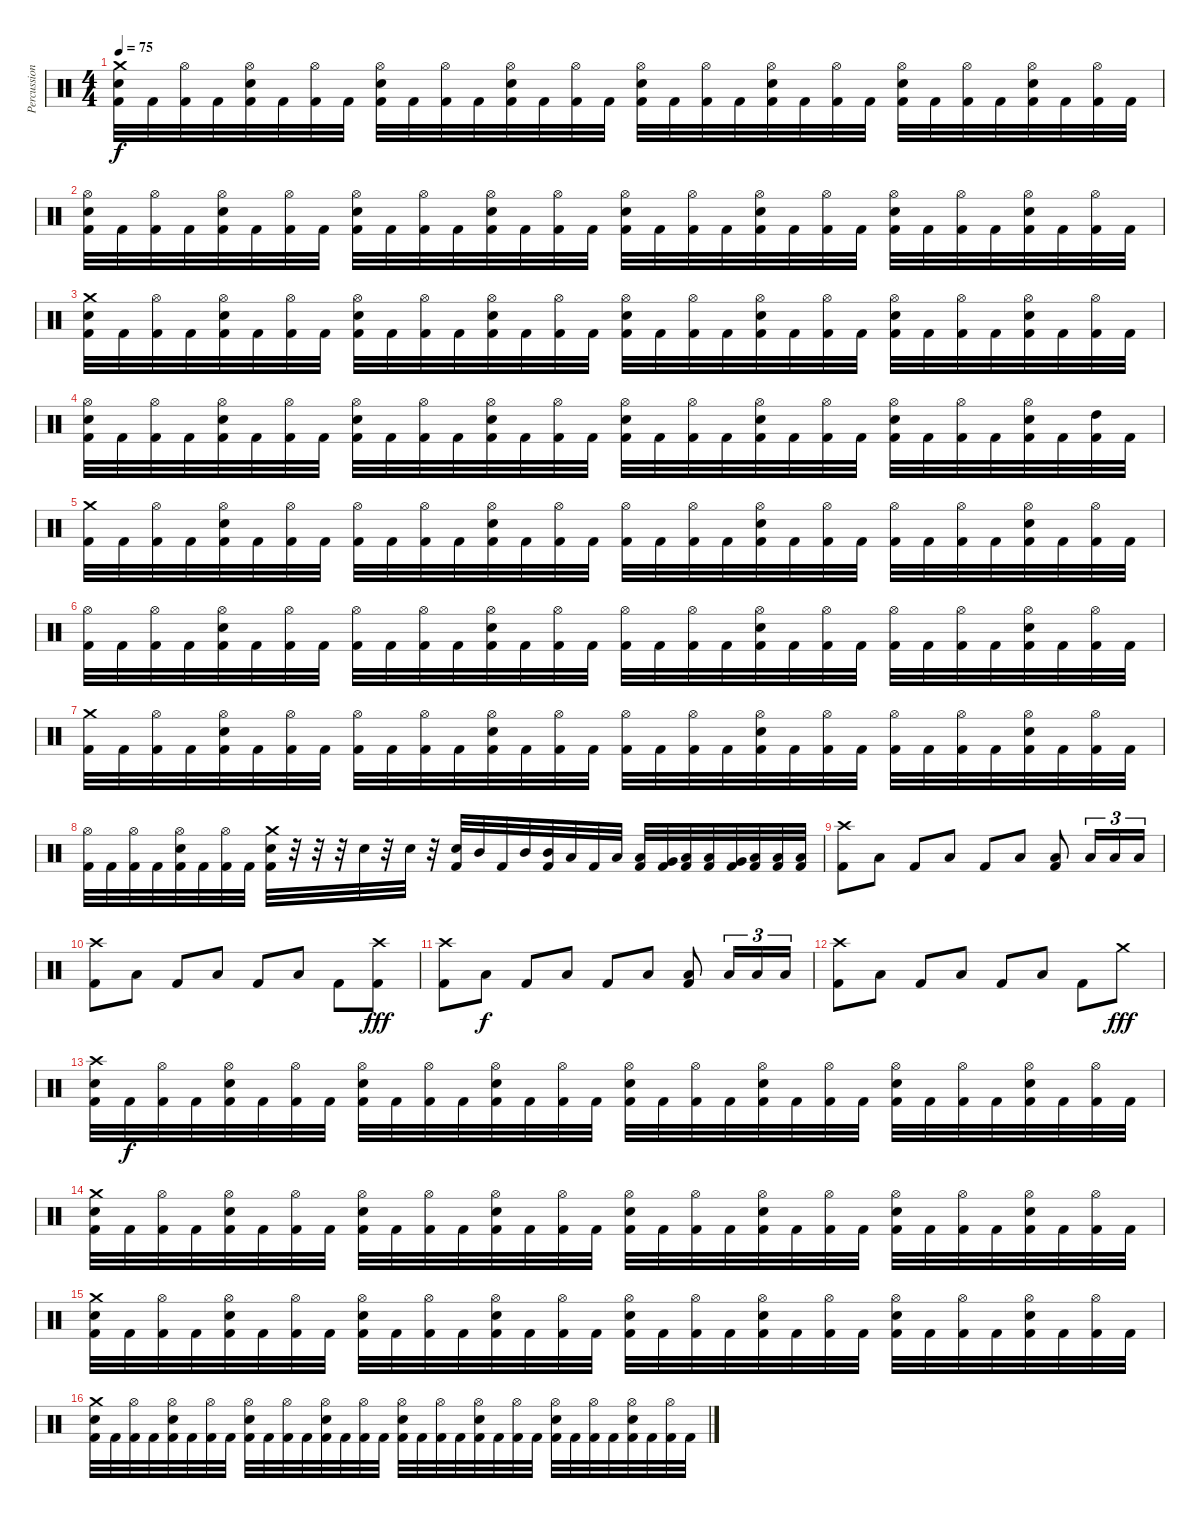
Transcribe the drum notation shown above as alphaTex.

\track ("Percussion" "Percussion") {instrument percussion}
\staff {score}
\articulation defaults
\ts (4 4)
\tempo 75
\clef neutral
\ks c
("Crash medium (hit)" "Electric Snare (hit)" "Kick (hit) 2").32{dy f} "Kick (hit) 2".32 ("Hi-Hat (open)" "Kick (hit) 2").32 "Kick (hit) 2".32 ("Hi-Hat (open)" "Electric Snare (hit)" "Kick (hit) 2").32 "Kick (hit) 2".32 ("Hi-Hat (open)" "Kick (hit) 2").32 "Kick (hit) 2".32 ("Hi-Hat (open)" "Electric Snare (hit)" "Kick (hit) 2").32 "Kick (hit) 2".32 ("Hi-Hat (open)" "Kick (hit) 2").32 "Kick (hit) 2".32 ("Hi-Hat (open)" "Electric Snare (hit)" "Kick (hit) 2").32 "Kick (hit) 2".32 ("Hi-Hat (open)" "Kick (hit) 2").32 "Kick (hit) 2".32 ("Hi-Hat (open)" "Electric Snare (hit)" "Kick (hit) 2").32 "Kick (hit) 2".32 ("Hi-Hat (open)" "Kick (hit) 2").32 "Kick (hit) 2".32 ("Hi-Hat (open)" "Electric Snare (hit)" "Kick (hit) 2").32 "Kick (hit) 2".32 ("Hi-Hat (open)" "Kick (hit) 2").32 "Kick (hit) 2".32 ("Hi-Hat (open)" "Electric Snare (hit)" "Kick (hit) 2").32 "Kick (hit) 2".32 ("Hi-Hat (open)" "Kick (hit) 2").32 "Kick (hit) 2".32 ("Hi-Hat (open)" "Electric Snare (hit)" "Kick (hit) 2").32 "Kick (hit) 2".32 ("Hi-Hat (open)" "Kick (hit) 2").32 "Kick (hit) 2".32 |
("Hi-Hat (open)" "Electric Snare (hit)" "Kick (hit) 2").32 "Kick (hit) 2".32 ("Hi-Hat (open)" "Kick (hit) 2").32 "Kick (hit) 2".32 ("Hi-Hat (open)" "Electric Snare (hit)" "Kick (hit) 2").32 "Kick (hit) 2".32 ("Hi-Hat (open)" "Kick (hit) 2").32 "Kick (hit) 2".32 ("Hi-Hat (open)" "Electric Snare (hit)" "Kick (hit) 2").32 "Kick (hit) 2".32 ("Hi-Hat (open)" "Kick (hit) 2").32 "Kick (hit) 2".32 ("Hi-Hat (open)" "Electric Snare (hit)" "Kick (hit) 2").32 "Kick (hit) 2".32 ("Hi-Hat (open)" "Kick (hit) 2").32 "Kick (hit) 2".32 ("Hi-Hat (open)" "Electric Snare (hit)" "Kick (hit) 2").32 "Kick (hit) 2".32 ("Hi-Hat (open)" "Kick (hit) 2").32 "Kick (hit) 2".32 ("Hi-Hat (open)" "Electric Snare (hit)" "Kick (hit) 2").32 "Kick (hit) 2".32 ("Hi-Hat (open)" "Kick (hit) 2").32 "Kick (hit) 2".32 ("Hi-Hat (open)" "Electric Snare (hit)" "Kick (hit) 2").32 "Kick (hit) 2".32 ("Hi-Hat (open)" "Kick (hit) 2").32 "Kick (hit) 2".32 ("Hi-Hat (open)" "Electric Snare (hit)" "Kick (hit) 2").32 "Kick (hit) 2".32 ("Hi-Hat (open)" "Kick (hit) 2").32 "Kick (hit) 2".32 |
("Crash medium (hit)" "Electric Snare (hit)" "Kick (hit) 2").32 "Kick (hit) 2".32 ("Hi-Hat (open)" "Kick (hit) 2").32 "Kick (hit) 2".32 ("Hi-Hat (open)" "Electric Snare (hit)" "Kick (hit) 2").32 "Kick (hit) 2".32 ("Hi-Hat (open)" "Kick (hit) 2").32 "Kick (hit) 2".32 ("Hi-Hat (open)" "Electric Snare (hit)" "Kick (hit) 2").32 "Kick (hit) 2".32 ("Hi-Hat (open)" "Kick (hit) 2").32 "Kick (hit) 2".32 ("Hi-Hat (open)" "Electric Snare (hit)" "Kick (hit) 2").32 "Kick (hit) 2".32 ("Hi-Hat (open)" "Kick (hit) 2").32 "Kick (hit) 2".32 ("Hi-Hat (open)" "Electric Snare (hit)" "Kick (hit) 2").32 "Kick (hit) 2".32 ("Hi-Hat (open)" "Kick (hit) 2").32 "Kick (hit) 2".32 ("Hi-Hat (open)" "Electric Snare (hit)" "Kick (hit) 2").32 "Kick (hit) 2".32 ("Hi-Hat (open)" "Kick (hit) 2").32 "Kick (hit) 2".32 ("Hi-Hat (open)" "Electric Snare (hit)" "Kick (hit) 2").32 "Kick (hit) 2".32 ("Hi-Hat (open)" "Kick (hit) 2").32 "Kick (hit) 2".32 ("Hi-Hat (open)" "Electric Snare (hit)" "Kick (hit) 2").32 "Kick (hit) 2".32 ("Hi-Hat (open)" "Kick (hit) 2").32 "Kick (hit) 2".32 |
("Hi-Hat (open)" "Electric Snare (hit)" "Kick (hit) 2").32 "Kick (hit) 2".32 ("Hi-Hat (open)" "Kick (hit) 2").32 "Kick (hit) 2".32 ("Hi-Hat (open)" "Electric Snare (hit)" "Kick (hit) 2").32 "Kick (hit) 2".32 ("Hi-Hat (open)" "Kick (hit) 2").32 "Kick (hit) 2".32 ("Hi-Hat (open)" "Electric Snare (hit)" "Kick (hit) 2").32 "Kick (hit) 2".32 ("Hi-Hat (open)" "Kick (hit) 2").32 "Kick (hit) 2".32 ("Hi-Hat (open)" "Electric Snare (hit)" "Kick (hit) 2").32 "Kick (hit) 2".32 ("Hi-Hat (open)" "Kick (hit) 2").32 "Kick (hit) 2".32 ("Hi-Hat (open)" "Electric Snare (hit)" "Kick (hit) 2").32 "Kick (hit) 2".32 ("Hi-Hat (open)" "Kick (hit) 2").32 "Kick (hit) 2".32 ("Hi-Hat (open)" "Electric Snare (hit)" "Kick (hit) 2").32 "Kick (hit) 2".32 ("Hi-Hat (open)" "Kick (hit) 2").32 "Kick (hit) 2".32 ("Hi-Hat (open)" "Electric Snare (hit)" "Kick (hit) 2").32 "Kick (hit) 2".32 ("Hi-Hat (open)" "Kick (hit) 2").32 "Kick (hit) 2".32 ("Hi-Hat (open)" "Electric Snare (hit)" "Kick (hit) 2").32 "Kick (hit) 2".32 ("High Tom (hit)" "Kick (hit) 2").32 "Kick (hit) 2".32 |
("Crash medium (hit)" "Kick (hit) 2").32 "Kick (hit) 2".32 ("Hi-Hat (open)" "Kick (hit) 2").32 "Kick (hit) 2".32 ("Hi-Hat (open)" "Electric Snare (hit)" "Kick (hit) 2").32 "Kick (hit) 2".32 ("Hi-Hat (open)" "Kick (hit) 2").32 "Kick (hit) 2".32 ("Hi-Hat (open)" "Kick (hit) 2").32 "Kick (hit) 2".32 ("Hi-Hat (open)" "Kick (hit) 2").32 "Kick (hit) 2".32 ("Hi-Hat (open)" "Electric Snare (hit)" "Kick (hit) 2").32 "Kick (hit) 2".32 ("Hi-Hat (open)" "Kick (hit) 2").32 "Kick (hit) 2".32 ("Hi-Hat (open)" "Kick (hit) 2").32 "Kick (hit) 2".32 ("Hi-Hat (open)" "Kick (hit) 2").32 "Kick (hit) 2".32 ("Hi-Hat (open)" "Electric Snare (hit)" "Kick (hit) 2").32 "Kick (hit) 2".32 ("Hi-Hat (open)" "Kick (hit) 2").32 "Kick (hit) 2".32 ("Hi-Hat (open)" "Kick (hit) 2").32 "Kick (hit) 2".32 ("Hi-Hat (open)" "Kick (hit) 2").32 "Kick (hit) 2".32 ("Hi-Hat (open)" "Electric Snare (hit)" "Kick (hit) 2").32 "Kick (hit) 2".32 ("Hi-Hat (open)" "Kick (hit) 2").32 "Kick (hit) 2".32 |
("Hi-Hat (open)" "Kick (hit) 2").32 "Kick (hit) 2".32 ("Hi-Hat (open)" "Kick (hit) 2").32 "Kick (hit) 2".32 ("Hi-Hat (open)" "Electric Snare (hit)" "Kick (hit) 2").32 "Kick (hit) 2".32 ("Hi-Hat (open)" "Kick (hit) 2").32 "Kick (hit) 2".32 ("Hi-Hat (open)" "Kick (hit) 2").32 "Kick (hit) 2".32 ("Hi-Hat (open)" "Kick (hit) 2").32 "Kick (hit) 2".32 ("Hi-Hat (open)" "Electric Snare (hit)" "Kick (hit) 2").32 "Kick (hit) 2".32 ("Hi-Hat (open)" "Kick (hit) 2").32 "Kick (hit) 2".32 ("Hi-Hat (open)" "Kick (hit) 2").32 "Kick (hit) 2".32 ("Hi-Hat (open)" "Kick (hit) 2").32 "Kick (hit) 2".32 ("Hi-Hat (open)" "Electric Snare (hit)" "Kick (hit) 2").32 "Kick (hit) 2".32 ("Hi-Hat (open)" "Kick (hit) 2").32 "Kick (hit) 2".32 ("Hi-Hat (open)" "Kick (hit) 2").32 "Kick (hit) 2".32 ("Hi-Hat (open)" "Kick (hit) 2").32 "Kick (hit) 2".32 ("Hi-Hat (open)" "Electric Snare (hit)" "Kick (hit) 2").32 "Kick (hit) 2".32 ("Hi-Hat (open)" "Kick (hit) 2").32 "Kick (hit) 2".32 |
("Crash medium (hit)" "Kick (hit) 2").32 "Kick (hit) 2".32 ("Hi-Hat (open)" "Kick (hit) 2").32 "Kick (hit) 2".32 ("Hi-Hat (open)" "Electric Snare (hit)" "Kick (hit) 2").32 "Kick (hit) 2".32 ("Hi-Hat (open)" "Kick (hit) 2").32 "Kick (hit) 2".32 ("Hi-Hat (open)" "Kick (hit) 2").32 "Kick (hit) 2".32 ("Hi-Hat (open)" "Kick (hit) 2").32 "Kick (hit) 2".32 ("Hi-Hat (open)" "Electric Snare (hit)" "Kick (hit) 2").32 "Kick (hit) 2".32 ("Hi-Hat (open)" "Kick (hit) 2").32 "Kick (hit) 2".32 ("Hi-Hat (open)" "Kick (hit) 2").32 "Kick (hit) 2".32 ("Hi-Hat (open)" "Kick (hit) 2").32 "Kick (hit) 2".32 ("Hi-Hat (open)" "Electric Snare (hit)" "Kick (hit) 2").32 "Kick (hit) 2".32 ("Hi-Hat (open)" "Kick (hit) 2").32 "Kick (hit) 2".32 ("Hi-Hat (open)" "Kick (hit) 2").32 "Kick (hit) 2".32 ("Hi-Hat (open)" "Kick (hit) 2").32 "Kick (hit) 2".32 ("Hi-Hat (open)" "Electric Snare (hit)" "Kick (hit) 2").32 "Kick (hit) 2".32 ("Hi-Hat (open)" "Kick (hit) 2").32 "Kick (hit) 2".32 |
("Hi-Hat (open)" "Kick (hit) 2").32 "Kick (hit) 2".32 ("Hi-Hat (open)" "Kick (hit) 2").32 "Kick (hit) 2".32 ("Hi-Hat (open)" "Electric Snare (hit)" "Kick (hit) 2").32 "Kick (hit) 2".32 ("Hi-Hat (open)" "Kick (hit) 2").32 "Kick (hit) 2".32 ("Crash medium (hit)" "Electric Snare (hit)" "Kick (hit) 2").32 r.32 r.32 r.32 "Electric Snare (hit)".32 r.32 "Electric Snare (hit)".32 r.32 ("Electric Snare (hit)" "Kick (hit) 2").32 "Mid Tom (hit)".32 "Kick (hit) 2".32 "Mid Tom (hit)".32 ("Mid Tom (hit)" "Kick (hit) 2").32 "Low Tom (hit)".32 "Kick (hit) 2".32 "Low Tom (hit)".32 ("Low Tom (hit)" "Kick (hit) 2").32 ("Very Low Tom (hit)" "Kick (hit) 2").32 ("Low Floor Tom (hit)" "Kick (hit) 2").32 ("Low Floor Tom (hit)" "Kick (hit) 2").32 ("Very Low Tom (hit)" "Kick (hit) 2").32 ("Low Tom (hit)" "Kick (hit) 2").32 ("Low Tom (hit)" "Kick (hit) 2").32 ("Low Tom (hit)" "Kick (hit) 2").32 |
("Crash high (hit)" "Kick (hit) 2").8 "Low Tom (hit)".8 "Kick (hit) 2".8 "Low Tom (hit)".8 "Kick (hit) 2".8 "Low Tom (hit)".8 ("Low Tom (hit)" "Kick (hit) 2").8 "Low Tom (hit)".16{tu (3 2)} "Low Tom (hit)".16{tu (3 2)} "Low Tom (hit)".16{tu (3 2)} |
("Crash high (hit)" "Kick (hit) 2").8 "Low Tom (hit)".8 "Kick (hit) 2".8 "Low Tom (hit)".8 "Kick (hit) 2".8 "Low Tom (hit)".8 "Kick (hit) 2".8 ("Crash high (hit)" "Kick (hit) 2").8{dy fff} |
("Crash high (hit)" "Kick (hit) 2").8 "Low Tom (hit)".8{dy f} "Kick (hit) 2".8 "Low Tom (hit)".8 "Kick (hit) 2".8 "Low Tom (hit)".8 ("Low Tom (hit)" "Kick (hit) 2").8 "Low Tom (hit)".16{tu (3 2)} "Low Tom (hit)".16{tu (3 2)} "Low Tom (hit)".16{tu (3 2)} |
("Crash high (hit)" "Kick (hit) 2").8 "Low Tom (hit)".8 "Kick (hit) 2".8 "Low Tom (hit)".8 "Kick (hit) 2".8 "Low Tom (hit)".8 "Kick (hit) 2".8 "Crash medium (hit)".8{dy fff} |
("Crash high (hit)" "Electric Snare (hit)" "Kick (hit) 2").32 "Kick (hit) 2".32{dy f} ("Hi-Hat (open)" "Kick (hit) 2").32 "Kick (hit) 2".32 ("Hi-Hat (open)" "Electric Snare (hit)" "Kick (hit) 2").32 "Kick (hit) 2".32 ("Hi-Hat (open)" "Kick (hit) 2").32 "Kick (hit) 2".32 ("Hi-Hat (open)" "Electric Snare (hit)" "Kick (hit) 2").32 "Kick (hit) 2".32 ("Hi-Hat (open)" "Kick (hit) 2").32 "Kick (hit) 2".32 ("Hi-Hat (open)" "Electric Snare (hit)" "Kick (hit) 2").32 "Kick (hit) 2".32 ("Hi-Hat (open)" "Kick (hit) 2").32 "Kick (hit) 2".32 ("Hi-Hat (open)" "Electric Snare (hit)" "Kick (hit) 2").32 "Kick (hit) 2".32 ("Hi-Hat (open)" "Kick (hit) 2").32 "Kick (hit) 2".32 ("Hi-Hat (open)" "Electric Snare (hit)" "Kick (hit) 2").32 "Kick (hit) 2".32 ("Hi-Hat (open)" "Kick (hit) 2").32 "Kick (hit) 2".32 ("Hi-Hat (open)" "Electric Snare (hit)" "Kick (hit) 2").32 "Kick (hit) 2".32 ("Hi-Hat (open)" "Kick (hit) 2").32 "Kick (hit) 2".32 ("Hi-Hat (open)" "Electric Snare (hit)" "Kick (hit) 2").32 "Kick (hit) 2".32 ("Hi-Hat (open)" "Kick (hit) 2").32 "Kick (hit) 2".32 |
("Crash medium (hit)" "Electric Snare (hit)" "Kick (hit) 2").32 "Kick (hit) 2".32 ("Hi-Hat (open)" "Kick (hit) 2").32 "Kick (hit) 2".32 ("Hi-Hat (open)" "Electric Snare (hit)" "Kick (hit) 2").32 "Kick (hit) 2".32 ("Hi-Hat (open)" "Kick (hit) 2").32 "Kick (hit) 2".32 ("Hi-Hat (open)" "Electric Snare (hit)" "Kick (hit) 2").32 "Kick (hit) 2".32 ("Hi-Hat (open)" "Kick (hit) 2").32 "Kick (hit) 2".32 ("Hi-Hat (open)" "Electric Snare (hit)" "Kick (hit) 2").32 "Kick (hit) 2".32 ("Hi-Hat (open)" "Kick (hit) 2").32 "Kick (hit) 2".32 ("Hi-Hat (open)" "Electric Snare (hit)" "Kick (hit) 2").32 "Kick (hit) 2".32 ("Hi-Hat (open)" "Kick (hit) 2").32 "Kick (hit) 2".32 ("Hi-Hat (open)" "Electric Snare (hit)" "Kick (hit) 2").32 "Kick (hit) 2".32 ("Hi-Hat (open)" "Kick (hit) 2").32 "Kick (hit) 2".32 ("Hi-Hat (open)" "Electric Snare (hit)" "Kick (hit) 2").32 "Kick (hit) 2".32 ("Hi-Hat (open)" "Kick (hit) 2").32 "Kick (hit) 2".32 ("Hi-Hat (open)" "Electric Snare (hit)" "Kick (hit) 2").32 "Kick (hit) 2".32 ("Hi-Hat (open)" "Kick (hit) 2").32 "Kick (hit) 2".32 |
("Crash medium (hit)" "Electric Snare (hit)" "Kick (hit) 2").32 "Kick (hit) 2".32 ("Hi-Hat (open)" "Kick (hit) 2").32 "Kick (hit) 2".32 ("Hi-Hat (open)" "Electric Snare (hit)" "Kick (hit) 2").32 "Kick (hit) 2".32 ("Hi-Hat (open)" "Kick (hit) 2").32 "Kick (hit) 2".32 ("Hi-Hat (open)" "Electric Snare (hit)" "Kick (hit) 2").32 "Kick (hit) 2".32 ("Hi-Hat (open)" "Kick (hit) 2").32 "Kick (hit) 2".32 ("Hi-Hat (open)" "Electric Snare (hit)" "Kick (hit) 2").32 "Kick (hit) 2".32 ("Hi-Hat (open)" "Kick (hit) 2").32 "Kick (hit) 2".32 ("Hi-Hat (open)" "Electric Snare (hit)" "Kick (hit) 2").32 "Kick (hit) 2".32 ("Hi-Hat (open)" "Kick (hit) 2").32 "Kick (hit) 2".32 ("Hi-Hat (open)" "Electric Snare (hit)" "Kick (hit) 2").32 "Kick (hit) 2".32 ("Hi-Hat (open)" "Kick (hit) 2").32 "Kick (hit) 2".32 ("Hi-Hat (open)" "Electric Snare (hit)" "Kick (hit) 2").32 "Kick (hit) 2".32 ("Hi-Hat (open)" "Kick (hit) 2").32 "Kick (hit) 2".32 ("Hi-Hat (open)" "Electric Snare (hit)" "Kick (hit) 2").32 "Kick (hit) 2".32 ("Hi-Hat (open)" "Kick (hit) 2").32 "Kick (hit) 2".32 |
("Crash medium (hit)" "Electric Snare (hit)" "Kick (hit) 2").32 "Kick (hit) 2".32 ("Hi-Hat (open)" "Kick (hit) 2").32 "Kick (hit) 2".32 ("Hi-Hat (open)" "Electric Snare (hit)" "Kick (hit) 2").32 "Kick (hit) 2".32 ("Hi-Hat (open)" "Kick (hit) 2").32 "Kick (hit) 2".32 ("Hi-Hat (open)" "Electric Snare (hit)" "Kick (hit) 2").32 "Kick (hit) 2".32 ("Hi-Hat (open)" "Kick (hit) 2").32 "Kick (hit) 2".32 ("Hi-Hat (open)" "Electric Snare (hit)" "Kick (hit) 2").32 "Kick (hit) 2".32 ("Hi-Hat (open)" "Kick (hit) 2").32 "Kick (hit) 2".32 ("Hi-Hat (open)" "Electric Snare (hit)" "Kick (hit) 2").32 "Kick (hit) 2".32 ("Hi-Hat (open)" "Kick (hit) 2").32 "Kick (hit) 2".32 ("Hi-Hat (open)" "Electric Snare (hit)" "Kick (hit) 2").32 "Kick (hit) 2".32 ("Hi-Hat (open)" "Kick (hit) 2").32 "Kick (hit) 2".32 ("Hi-Hat (open)" "Electric Snare (hit)" "Kick (hit) 2").32 "Kick (hit) 2".32 ("Hi-Hat (open)" "Kick (hit) 2").32 "Kick (hit) 2".32 ("Hi-Hat (open)" "Electric Snare (hit)" "Kick (hit) 2").32 "Kick (hit) 2".32 ("Hi-Hat (open)" "Kick (hit) 2").32 "Kick (hit) 2".32
